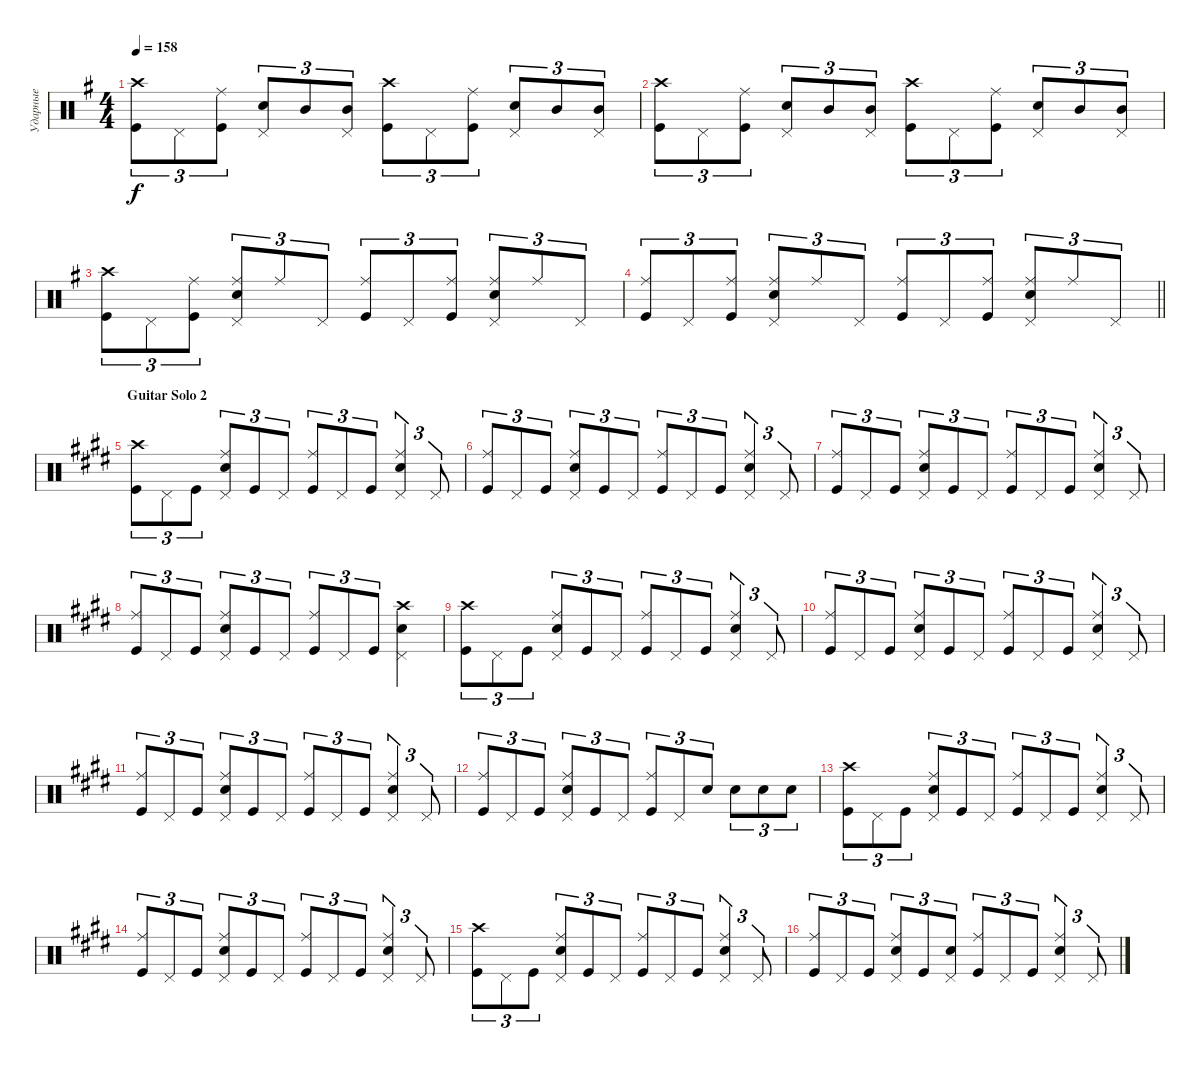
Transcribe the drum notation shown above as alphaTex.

\track ("Ударные" "Ударные") {instrument percussion}
\staff {score}
\articulation defaults
\ts (4 4)
\tempo 158
\clef neutral
\ks eminor
("Kick (hit)" "Crash high (hit)").8{tu (3 2) dy f} "Pedal Hi-Hat (hit)".8{tu (3 2)} ("Kick (hit)" "Ride (middle)").8{tu (3 2)} ("Snare (hit) 2" "Pedal Hi-Hat (hit)").8{tu (3 2)} "Mid Tom (hit)".8{tu (3 2)} ("Pedal Hi-Hat (hit)" "Mid Tom (hit)").8{tu (3 2)} ("Kick (hit)" "Crash high (hit)").8{tu (3 2)} "Pedal Hi-Hat (hit)".8{tu (3 2)} ("Kick (hit)" "Ride (middle)").8{tu (3 2)} ("Snare (hit) 2" "Pedal Hi-Hat (hit)").8{tu (3 2)} "Mid Tom (hit)".8{tu (3 2)} ("Pedal Hi-Hat (hit)" "Mid Tom (hit)").8{tu (3 2)} |
("Kick (hit)" "Crash high (hit)").8{tu (3 2)} "Pedal Hi-Hat (hit)".8{tu (3 2)} ("Kick (hit)" "Ride (middle)").8{tu (3 2)} ("Snare (hit) 2" "Pedal Hi-Hat (hit)").8{tu (3 2)} "Mid Tom (hit)".8{tu (3 2)} ("Pedal Hi-Hat (hit)" "Mid Tom (hit)").8{tu (3 2)} ("Kick (hit)" "Crash high (hit)").8{tu (3 2)} "Pedal Hi-Hat (hit)".8{tu (3 2)} ("Kick (hit)" "Ride (middle)").8{tu (3 2)} ("Snare (hit) 2" "Pedal Hi-Hat (hit)").8{tu (3 2)} "Mid Tom (hit)".8{tu (3 2)} ("Pedal Hi-Hat (hit)" "Mid Tom (hit)").8{tu (3 2)} |
("Kick (hit)" "Crash high (hit)").8{tu (3 2) bd 120} "Pedal Hi-Hat (hit)".8{tu (3 2)} ("Kick (hit)" "Ride (middle)").8{tu (3 2) bd 120} ("Snare (hit) 2" "Ride (middle)" "Pedal Hi-Hat (hit)").8{tu (3 2) bd 120} "Ride (middle)".8{tu (3 2)} "Pedal Hi-Hat (hit)".8{tu (3 2)} ("Kick (hit)" "Ride (middle)").8{tu (3 2) bd 120} "Pedal Hi-Hat (hit)".8{tu (3 2)} ("Kick (hit)" "Ride (middle)").8{tu (3 2) bd 120} ("Snare (hit) 2" "Ride (middle)" "Pedal Hi-Hat (hit)").8{tu (3 2) bd 120} "Ride (middle)".8{tu (3 2)} "Pedal Hi-Hat (hit)".8{tu (3 2)} |
\barLineRight lightlight
("Kick (hit)" "Ride (middle)").8{tu (3 2) bd 120} "Pedal Hi-Hat (hit)".8{tu (3 2)} ("Kick (hit)" "Ride (middle)").8{tu (3 2) bd 120} ("Snare (hit) 2" "Ride (middle)" "Pedal Hi-Hat (hit)").8{tu (3 2) bd 120} "Ride (middle)".8{tu (3 2)} "Pedal Hi-Hat (hit)".8{tu (3 2)} ("Kick (hit)" "Ride (middle)").8{tu (3 2) bd 120} "Pedal Hi-Hat (hit)".8{tu (3 2)} ("Kick (hit)" "Ride (middle)").8{tu (3 2) bd 120} ("Snare (hit) 2" "Ride (middle)" "Pedal Hi-Hat (hit)").8{tu (3 2) bd 120} "Ride (middle)".8{tu (3 2)} "Pedal Hi-Hat (hit)".8{tu (3 2)} |
\section ("" "Guitar Solo 2")
\ks c#minor
("Kick (hit)" "Crash high (hit)").8{tu (3 2) bd 120} "Pedal Hi-Hat (hit)".8{tu (3 2)} "Kick (hit)".8{tu (3 2)} ("Snare (hit) 2" "Ride (middle)" "Pedal Hi-Hat (hit)").8{tu (3 2) bd 120} "Kick (hit)".8{tu (3 2)} "Pedal Hi-Hat (hit)".8{tu (3 2)} ("Kick (hit)" "Ride (middle)").8{tu (3 2) bd 120} "Pedal Hi-Hat (hit)".8{tu (3 2)} "Kick (hit)".8{tu (3 2)} ("Snare (hit) 2" "Ride (middle)" "Pedal Hi-Hat (hit)").4{tu (3 2) bd 120} "Pedal Hi-Hat (hit)".8{tu (3 2)} |
("Kick (hit)" "Ride (middle)").8{tu (3 2) bd 120} "Pedal Hi-Hat (hit)".8{tu (3 2)} "Kick (hit)".8{tu (3 2)} ("Snare (hit) 2" "Ride (middle)" "Pedal Hi-Hat (hit)").8{tu (3 2) bd 120} "Kick (hit)".8{tu (3 2)} "Pedal Hi-Hat (hit)".8{tu (3 2)} ("Kick (hit)" "Ride (middle)").8{tu (3 2) bd 120} "Pedal Hi-Hat (hit)".8{tu (3 2)} "Kick (hit)".8{tu (3 2)} ("Snare (hit) 2" "Ride (middle)" "Pedal Hi-Hat (hit)").4{tu (3 2) bd 120} "Pedal Hi-Hat (hit)".8{tu (3 2)} |
("Kick (hit)" "Ride (middle)").8{tu (3 2) bd 120} "Pedal Hi-Hat (hit)".8{tu (3 2)} "Kick (hit)".8{tu (3 2)} ("Snare (hit) 2" "Ride (middle)" "Pedal Hi-Hat (hit)").8{tu (3 2) bd 120} "Kick (hit)".8{tu (3 2)} "Pedal Hi-Hat (hit)".8{tu (3 2)} ("Kick (hit)" "Ride (middle)").8{tu (3 2) bd 120} "Pedal Hi-Hat (hit)".8{tu (3 2)} "Kick (hit)".8{tu (3 2)} ("Snare (hit) 2" "Ride (middle)" "Pedal Hi-Hat (hit)").4{tu (3 2) bd 120} "Pedal Hi-Hat (hit)".8{tu (3 2)} |
("Kick (hit)" "Ride (middle)").8{tu (3 2) bd 120} "Pedal Hi-Hat (hit)".8{tu (3 2)} "Kick (hit)".8{tu (3 2)} ("Snare (hit) 2" "Ride (middle)" "Pedal Hi-Hat (hit)").8{tu (3 2) bd 120} "Kick (hit)".8{tu (3 2)} "Pedal Hi-Hat (hit)".8{tu (3 2)} ("Kick (hit)" "Ride (middle)").8{tu (3 2) bd 120} "Pedal Hi-Hat (hit)".8{tu (3 2)} "Kick (hit)".8{tu (3 2)} ("Snare (hit) 2" "Pedal Hi-Hat (hit)" "Crash high (hit)").4{bd 120} |
("Kick (hit)" "Crash high (hit)").8{tu (3 2) bd 120} "Pedal Hi-Hat (hit)".8{tu (3 2)} "Kick (hit)".8{tu (3 2)} ("Snare (hit) 2" "Ride (middle)" "Pedal Hi-Hat (hit)").8{tu (3 2) bd 120} "Kick (hit)".8{tu (3 2)} "Pedal Hi-Hat (hit)".8{tu (3 2)} ("Kick (hit)" "Ride (middle)").8{tu (3 2) bd 120} "Pedal Hi-Hat (hit)".8{tu (3 2)} "Kick (hit)".8{tu (3 2)} ("Snare (hit) 2" "Ride (middle)" "Pedal Hi-Hat (hit)").4{tu (3 2) bd 120} "Pedal Hi-Hat (hit)".8{tu (3 2)} |
("Kick (hit)" "Ride (middle)").8{tu (3 2) bd 120} "Pedal Hi-Hat (hit)".8{tu (3 2)} "Kick (hit)".8{tu (3 2)} ("Snare (hit) 2" "Ride (middle)" "Pedal Hi-Hat (hit)").8{tu (3 2) bd 120} "Kick (hit)".8{tu (3 2)} "Pedal Hi-Hat (hit)".8{tu (3 2)} ("Kick (hit)" "Ride (middle)").8{tu (3 2) bd 120} "Pedal Hi-Hat (hit)".8{tu (3 2)} "Kick (hit)".8{tu (3 2)} ("Snare (hit) 2" "Ride (middle)" "Pedal Hi-Hat (hit)").4{tu (3 2) bd 120} "Pedal Hi-Hat (hit)".8{tu (3 2)} |
("Kick (hit)" "Ride (middle)").8{tu (3 2) bd 120} "Pedal Hi-Hat (hit)".8{tu (3 2)} "Kick (hit)".8{tu (3 2)} ("Snare (hit) 2" "Ride (middle)" "Pedal Hi-Hat (hit)").8{tu (3 2) bd 120} "Kick (hit)".8{tu (3 2)} "Pedal Hi-Hat (hit)".8{tu (3 2)} ("Kick (hit)" "Ride (middle)").8{tu (3 2) bd 120} "Pedal Hi-Hat (hit)".8{tu (3 2)} "Kick (hit)".8{tu (3 2)} ("Snare (hit) 2" "Ride (middle)" "Pedal Hi-Hat (hit)").4{tu (3 2) bd 120} "Pedal Hi-Hat (hit)".8{tu (3 2)} |
("Kick (hit)" "Ride (middle)").8{tu (3 2) bd 120} "Pedal Hi-Hat (hit)".8{tu (3 2)} "Kick (hit)".8{tu (3 2)} ("Snare (hit) 2" "Ride (middle)" "Pedal Hi-Hat (hit)").8{tu (3 2) bd 120} "Kick (hit)".8{tu (3 2)} "Pedal Hi-Hat (hit)".8{tu (3 2)} ("Kick (hit)" "Ride (middle)").8{tu (3 2) bd 120} "Pedal Hi-Hat (hit)".8{tu (3 2)} "Snare (hit) 2".8{tu (3 2)} "Snare (hit) 2".8{tu (3 2)} "Snare (hit) 2".8{tu (3 2)} "Snare (hit) 2".8{tu (3 2)} |
("Kick (hit)" "Crash high (hit)").8{tu (3 2) bd 120} "Pedal Hi-Hat (hit)".8{tu (3 2)} "Kick (hit)".8{tu (3 2)} ("Snare (hit) 2" "Ride (middle)" "Pedal Hi-Hat (hit)").8{tu (3 2) bd 120} "Kick (hit)".8{tu (3 2)} "Pedal Hi-Hat (hit)".8{tu (3 2)} ("Kick (hit)" "Ride (middle)").8{tu (3 2) bd 120} "Pedal Hi-Hat (hit)".8{tu (3 2)} "Kick (hit)".8{tu (3 2)} ("Snare (hit) 2" "Ride (middle)" "Pedal Hi-Hat (hit)").4{tu (3 2) bd 120} "Pedal Hi-Hat (hit)".8{tu (3 2)} |
("Kick (hit)" "Ride (middle)").8{tu (3 2) bd 120} "Pedal Hi-Hat (hit)".8{tu (3 2)} "Kick (hit)".8{tu (3 2)} ("Snare (hit) 2" "Ride (middle)" "Pedal Hi-Hat (hit)").8{tu (3 2) bd 120} "Kick (hit)".8{tu (3 2)} "Pedal Hi-Hat (hit)".8{tu (3 2)} ("Kick (hit)" "Ride (middle)").8{tu (3 2) bd 120} "Pedal Hi-Hat (hit)".8{tu (3 2)} "Kick (hit)".8{tu (3 2)} ("Snare (hit) 2" "Ride (middle)" "Pedal Hi-Hat (hit)").4{tu (3 2) bd 120} "Pedal Hi-Hat (hit)".8{tu (3 2)} |
("Kick (hit)" "Crash high (hit)").8{tu (3 2) bd 120} "Pedal Hi-Hat (hit)".8{tu (3 2)} "Kick (hit)".8{tu (3 2)} ("Snare (hit) 2" "Ride (middle)" "Pedal Hi-Hat (hit)").8{tu (3 2) bd 120} "Kick (hit)".8{tu (3 2)} "Pedal Hi-Hat (hit)".8{tu (3 2)} ("Kick (hit)" "Ride (middle)").8{tu (3 2) bd 120} "Pedal Hi-Hat (hit)".8{tu (3 2)} "Kick (hit)".8{tu (3 2)} ("Snare (hit) 2" "Ride (middle)" "Pedal Hi-Hat (hit)").4{tu (3 2) bd 120} "Pedal Hi-Hat (hit)".8{tu (3 2)} |
("Kick (hit)" "Ride (middle)").8{tu (3 2) bd 120} "Pedal Hi-Hat (hit)".8{tu (3 2)} "Kick (hit)".8{tu (3 2)} ("Snare (hit) 2" "Ride (middle)" "Pedal Hi-Hat (hit)").8{tu (3 2) bd 120} "Kick (hit)".8{tu (3 2)} ("Pedal Hi-Hat (hit)" "Snare (hit) 2").8{tu (3 2) bd 120} ("Kick (hit)" "Ride (middle)").8{tu (3 2) bd 120} "Pedal Hi-Hat (hit)".8{tu (3 2)} "Kick (hit)".8{tu (3 2)} ("Snare (hit) 2" "Ride (middle)" "Pedal Hi-Hat (hit)").4{tu (3 2) bd 120} "Pedal Hi-Hat (hit)".8{tu (3 2)}
